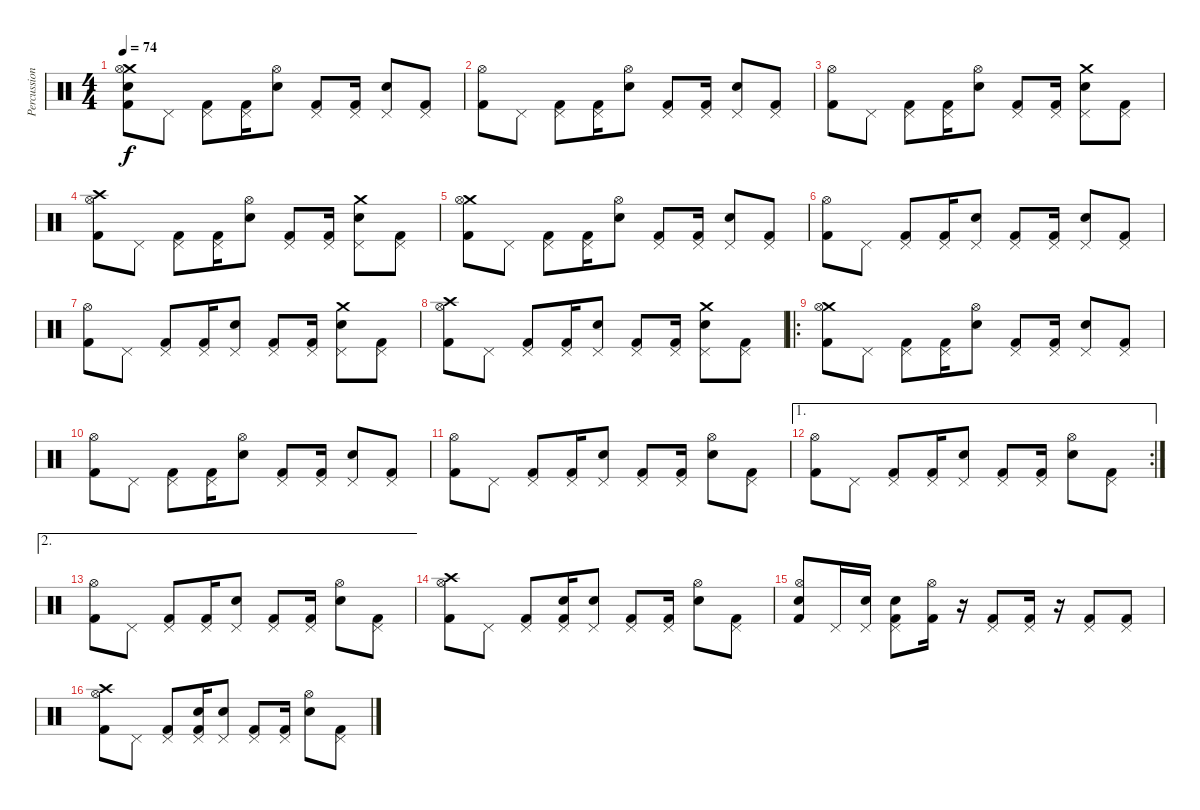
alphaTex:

\track ("Percussion" "Percussion") {instrument percussion}
\staff {score}
\articulation defaults
\ts (4 4)
\tempo 74
\clef neutral
\ks c
("Crash medium (hit)" "Snare (hit) 2" "Hi-Hat (open)" "Kick (hit) 2").8{dy f} "Pedal Hi-Hat (hit)".8 ("Pedal Hi-Hat (hit)" "Kick (hit) 2").8 ("Pedal Hi-Hat (hit)" "Kick (hit) 2").16 ("Snare (hit) 2" "Hi-Hat (open)").8 ("Pedal Hi-Hat (hit)" "Kick (hit) 2").8 ("Pedal Hi-Hat (hit)" "Kick (hit) 2").16 ("Snare (hit) 2" "Pedal Hi-Hat (hit)").8 ("Pedal Hi-Hat (hit)" "Kick (hit) 2").8 |
("Hi-Hat (open)" "Kick (hit) 2").8 "Pedal Hi-Hat (hit)".8 ("Pedal Hi-Hat (hit)" "Kick (hit) 2").8 ("Pedal Hi-Hat (hit)" "Kick (hit) 2").16 ("Snare (hit) 2" "Hi-Hat (open)").8 ("Pedal Hi-Hat (hit)" "Kick (hit) 2").8 ("Pedal Hi-Hat (hit)" "Kick (hit) 2").16 ("Snare (hit) 2" "Pedal Hi-Hat (hit)").8 ("Pedal Hi-Hat (hit)" "Kick (hit) 2").8 |
("Hi-Hat (open)" "Kick (hit) 2").8 "Pedal Hi-Hat (hit)".8 ("Pedal Hi-Hat (hit)" "Kick (hit) 2").8 ("Pedal Hi-Hat (hit)" "Kick (hit) 2").16 ("Snare (hit) 2" "Hi-Hat (open)").8 ("Pedal Hi-Hat (hit)" "Kick (hit) 2").8 ("Pedal Hi-Hat (hit)" "Kick (hit) 2").16 ("Crash medium (hit)" "Snare (hit) 2" "Pedal Hi-Hat (hit)").8 ("Pedal Hi-Hat (hit)" "Kick (hit) 2").8 |
("Crash high (hit)" "Hi-Hat (open)" "Kick (hit) 2").8 "Pedal Hi-Hat (hit)".8 ("Pedal Hi-Hat (hit)" "Kick (hit) 2").8 ("Pedal Hi-Hat (hit)" "Kick (hit) 2").16 ("Snare (hit) 2" "Hi-Hat (open)").8 ("Pedal Hi-Hat (hit)" "Kick (hit) 2").8 ("Pedal Hi-Hat (hit)" "Kick (hit) 2").16 ("Crash medium (hit)" "Snare (hit) 2" "Pedal Hi-Hat (hit)").8 ("Pedal Hi-Hat (hit)" "Kick (hit) 2").8 |
("Crash medium (hit)" "Hi-Hat (open)" "Kick (hit) 2").8 "Pedal Hi-Hat (hit)".8 ("Pedal Hi-Hat (hit)" "Kick (hit) 2").8 ("Pedal Hi-Hat (hit)" "Kick (hit) 2").16 ("Snare (hit) 2" "Hi-Hat (open)").8 ("Pedal Hi-Hat (hit)" "Kick (hit) 2").8 ("Pedal Hi-Hat (hit)" "Kick (hit) 2").16 ("Snare (hit) 2" "Pedal Hi-Hat (hit)").8 ("Pedal Hi-Hat (hit)" "Kick (hit) 2").8 |
("Hi-Hat (open)" "Kick (hit) 2").8 "Pedal Hi-Hat (hit)".8 ("Pedal Hi-Hat (hit)" "Kick (hit) 2").8 ("Pedal Hi-Hat (hit)" "Kick (hit) 2").16 ("Snare (hit) 2" "Pedal Hi-Hat (hit)").8 ("Pedal Hi-Hat (hit)" "Kick (hit) 2").8 ("Pedal Hi-Hat (hit)" "Kick (hit) 2").16 ("Snare (hit) 2" "Pedal Hi-Hat (hit)").8 ("Pedal Hi-Hat (hit)" "Kick (hit) 2").8 |
("Hi-Hat (open)" "Kick (hit) 2").8 "Pedal Hi-Hat (hit)".8 ("Pedal Hi-Hat (hit)" "Kick (hit) 2").8 ("Pedal Hi-Hat (hit)" "Kick (hit) 2").16 ("Snare (hit) 2" "Pedal Hi-Hat (hit)").8 ("Pedal Hi-Hat (hit)" "Kick (hit) 2").8 ("Pedal Hi-Hat (hit)" "Kick (hit) 2").16 ("Crash medium (hit)" "Snare (hit) 2" "Pedal Hi-Hat (hit)").8 ("Pedal Hi-Hat (hit)" "Kick (hit) 2").8 |
("Crash high (hit)" "Hi-Hat (open)" "Kick (hit) 2").8 "Pedal Hi-Hat (hit)".8 ("Pedal Hi-Hat (hit)" "Kick (hit) 2").8 ("Pedal Hi-Hat (hit)" "Kick (hit) 2").16 ("Snare (hit) 2" "Pedal Hi-Hat (hit)").8 ("Pedal Hi-Hat (hit)" "Kick (hit) 2").8 ("Pedal Hi-Hat (hit)" "Kick (hit) 2").16 ("Crash medium (hit)" "Snare (hit) 2" "Pedal Hi-Hat (hit)").8 ("Pedal Hi-Hat (hit)" "Kick (hit) 2").8 |
\ro
("Crash medium (hit)" "Hi-Hat (open)" "Kick (hit) 2").8 "Pedal Hi-Hat (hit)".8 ("Pedal Hi-Hat (hit)" "Kick (hit) 2").8 ("Pedal Hi-Hat (hit)" "Kick (hit) 2").16 ("Snare (hit) 2" "Hi-Hat (open)").8 ("Pedal Hi-Hat (hit)" "Kick (hit) 2").8 ("Pedal Hi-Hat (hit)" "Kick (hit) 2").16 ("Snare (hit) 2" "Pedal Hi-Hat (hit)").8 ("Pedal Hi-Hat (hit)" "Kick (hit) 2").8 |
("Hi-Hat (open)" "Kick (hit) 2").8 "Pedal Hi-Hat (hit)".8 ("Pedal Hi-Hat (hit)" "Kick (hit) 2").8 ("Pedal Hi-Hat (hit)" "Kick (hit) 2").16 ("Snare (hit) 2" "Hi-Hat (open)").8 ("Pedal Hi-Hat (hit)" "Kick (hit) 2").8 ("Pedal Hi-Hat (hit)" "Kick (hit) 2").16 ("Snare (hit) 2" "Pedal Hi-Hat (hit)").8 ("Pedal Hi-Hat (hit)" "Kick (hit) 2").8 |
("Hi-Hat (open)" "Kick (hit) 2").8 "Pedal Hi-Hat (hit)".8 ("Pedal Hi-Hat (hit)" "Kick (hit) 2").8 ("Pedal Hi-Hat (hit)" "Kick (hit) 2").16 ("Snare (hit) 2" "Pedal Hi-Hat (hit)").8 ("Pedal Hi-Hat (hit)" "Kick (hit) 2").8 ("Pedal Hi-Hat (hit)" "Kick (hit) 2").16 ("Snare (hit) 2" "Hi-Hat (open)").8 ("Pedal Hi-Hat (hit)" "Kick (hit) 2").8 |
\ae 1
\rc 2
("Hi-Hat (open)" "Kick (hit) 2").8 "Pedal Hi-Hat (hit)".8 ("Pedal Hi-Hat (hit)" "Kick (hit) 2").8 ("Pedal Hi-Hat (hit)" "Kick (hit) 2").16 ("Snare (hit) 2" "Pedal Hi-Hat (hit)").8 ("Pedal Hi-Hat (hit)" "Kick (hit) 2").8 ("Pedal Hi-Hat (hit)" "Kick (hit) 2").16 ("Snare (hit) 2" "Hi-Hat (open)").8 ("Pedal Hi-Hat (hit)" "Kick (hit) 2").8 |
\ae 2
("Hi-Hat (open)" "Kick (hit) 2").8 "Pedal Hi-Hat (hit)".8 ("Pedal Hi-Hat (hit)" "Kick (hit) 2").8 ("Pedal Hi-Hat (hit)" "Kick (hit) 2").16 ("Snare (hit) 2" "Pedal Hi-Hat (hit)").8 ("Pedal Hi-Hat (hit)" "Kick (hit) 2").8 ("Pedal Hi-Hat (hit)" "Kick (hit) 2").16 ("Snare (hit) 2" "Hi-Hat (open)").8 ("Pedal Hi-Hat (hit)" "Kick (hit) 2").8 |
("Crash high (hit)" "Hi-Hat (open)" "Kick (hit) 2").8 "Pedal Hi-Hat (hit)".8 ("Pedal Hi-Hat (hit)" "Kick (hit) 2").8 ("Snare (hit) 2" "Pedal Hi-Hat (hit)" "Kick (hit) 2").16 ("Snare (hit) 2" "Pedal Hi-Hat (hit)").8 ("Pedal Hi-Hat (hit)" "Kick (hit) 2").8 ("Pedal Hi-Hat (hit)" "Kick (hit) 2").16 ("Snare (hit) 2" "Hi-Hat (open)").8 ("Pedal Hi-Hat (hit)" "Kick (hit) 2").8 |
("Snare (hit) 2" "Hi-Hat (open)" "Kick (hit) 2").8 "Pedal Hi-Hat (hit)".16 ("Snare (hit) 2" "Pedal Hi-Hat (hit)").16 ("Snare (hit) 2" "Pedal Hi-Hat (hit)" "Kick (hit) 2").8 ("Hi-Hat (open)" "Kick (hit) 2").16 r.16 ("Pedal Hi-Hat (hit)" "Kick (hit) 2").8 ("Pedal Hi-Hat (hit)" "Kick (hit) 2").16 r.16 ("Pedal Hi-Hat (hit)" "Kick (hit) 2").8 ("Pedal Hi-Hat (hit)" "Kick (hit) 2").8 |
("Crash high (hit)" "Hi-Hat (open)" "Kick (hit) 2").8 "Pedal Hi-Hat (hit)".8 ("Pedal Hi-Hat (hit)" "Kick (hit) 2").8 ("Snare (hit) 2" "Pedal Hi-Hat (hit)" "Kick (hit) 2").16 ("Snare (hit) 2" "Pedal Hi-Hat (hit)").8 ("Pedal Hi-Hat (hit)" "Kick (hit) 2").8 ("Pedal Hi-Hat (hit)" "Kick (hit) 2").16 ("Snare (hit) 2" "Hi-Hat (open)").8 ("Pedal Hi-Hat (hit)" "Kick (hit) 2").8
